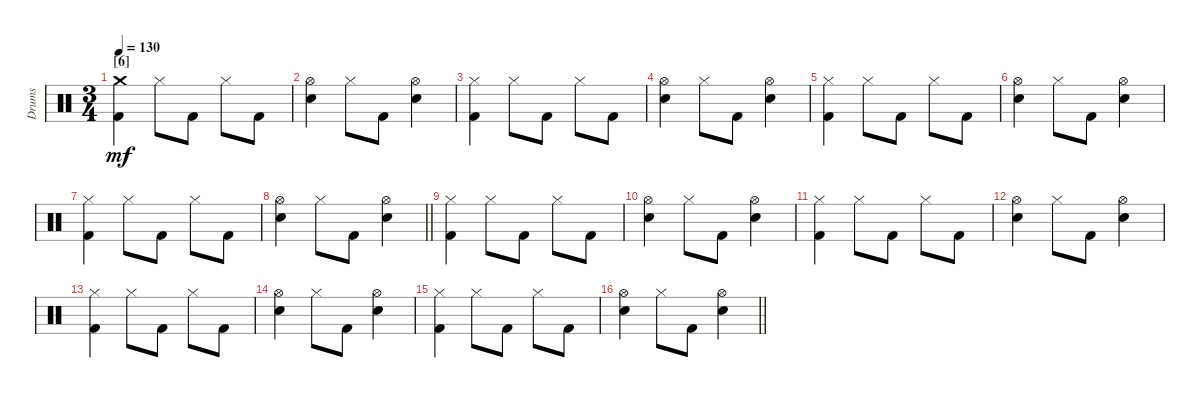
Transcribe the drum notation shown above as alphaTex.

\track ("Drums" "Drums") {instrument percussion}
\staff {score}
\articulation defaults
\ts (3 4)
\section ("" "[6]")
\tempo 130
\clef neutral
\ks c
("Crash medium (hit)" "Kick (hit) 2").4{dy mf} "Hi-Hat (closed)".8 "Kick (hit) 2".8 "Hi-Hat (closed)".8 "Kick (hit) 2".8 |
("Hi-Hat (open)" "Electric Snare (hit)").4 "Hi-Hat (closed)".8 "Kick (hit) 2".8 ("Hi-Hat (open)" "Electric Snare (hit)").4 |
("Hi-Hat (closed)" "Kick (hit) 2").4 "Hi-Hat (closed)".8 "Kick (hit) 2".8 "Hi-Hat (closed)".8 "Kick (hit) 2".8 |
("Hi-Hat (open)" "Electric Snare (hit)").4 "Hi-Hat (closed)".8 "Kick (hit) 2".8 ("Hi-Hat (open)" "Electric Snare (hit)").4 |
("Hi-Hat (closed)" "Kick (hit) 2").4 "Hi-Hat (closed)".8 "Kick (hit) 2".8 "Hi-Hat (closed)".8 "Kick (hit) 2".8 |
("Hi-Hat (open)" "Electric Snare (hit)").4 "Hi-Hat (closed)".8 "Kick (hit) 2".8 ("Hi-Hat (open)" "Electric Snare (hit)").4 |
("Hi-Hat (closed)" "Kick (hit) 2").4 "Hi-Hat (closed)".8 "Kick (hit) 2".8 "Hi-Hat (closed)".8 "Kick (hit) 2".8 |
\barLineRight lightlight
("Hi-Hat (open)" "Electric Snare (hit)").4 "Hi-Hat (closed)".8 "Kick (hit) 2".8 ("Hi-Hat (open)" "Electric Snare (hit)").4 |
\section ("" "")
("Hi-Hat (closed)" "Kick (hit) 2").4 "Hi-Hat (closed)".8 "Kick (hit) 2".8 "Hi-Hat (closed)".8 "Kick (hit) 2".8 |
("Hi-Hat (open)" "Electric Snare (hit)").4 "Hi-Hat (closed)".8 "Kick (hit) 2".8 ("Hi-Hat (open)" "Electric Snare (hit)").4 |
("Hi-Hat (closed)" "Kick (hit) 2").4 "Hi-Hat (closed)".8 "Kick (hit) 2".8 "Hi-Hat (closed)".8 "Kick (hit) 2".8 |
("Hi-Hat (open)" "Electric Snare (hit)").4 "Hi-Hat (closed)".8 "Kick (hit) 2".8 ("Hi-Hat (open)" "Electric Snare (hit)").4 |
("Hi-Hat (closed)" "Kick (hit) 2").4 "Hi-Hat (closed)".8 "Kick (hit) 2".8 "Hi-Hat (closed)".8 "Kick (hit) 2".8 |
("Hi-Hat (open)" "Electric Snare (hit)").4 "Hi-Hat (closed)".8 "Kick (hit) 2".8 ("Hi-Hat (open)" "Electric Snare (hit)").4 |
("Hi-Hat (closed)" "Kick (hit) 2").4 "Hi-Hat (closed)".8 "Kick (hit) 2".8 "Hi-Hat (closed)".8 "Kick (hit) 2".8 |
\barLineRight lightlight
("Hi-Hat (open)" "Electric Snare (hit)").4 "Hi-Hat (closed)".8 "Kick (hit) 2".8 ("Hi-Hat (open)" "Electric Snare (hit)").4
